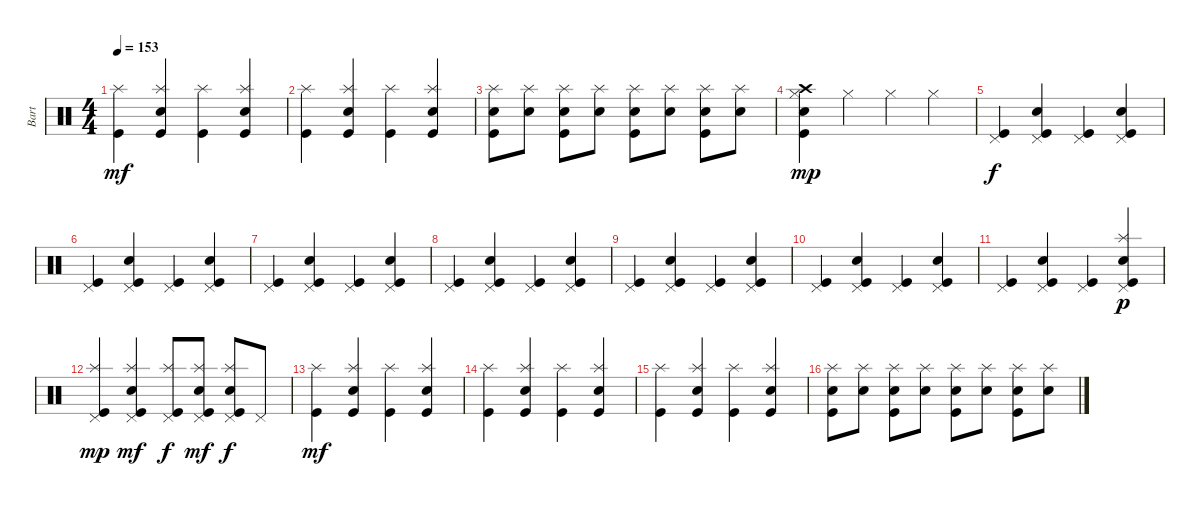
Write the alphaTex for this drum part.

\track ("Bart" "Bart") {instrument percussion}
\staff {score}
\articulation defaults
\ts (4 4)
\tempo 153
\clef neutral
\ks c
("Kick (hit)" "Splash (hit)").4{dy mf} ("Kick (hit)" "Electric Snare (hit)" "Splash (hit)").4 ("Kick (hit)" "Splash (hit)").4 ("Kick (hit)" "Electric Snare (hit)" "Splash (hit)").4 |
("Kick (hit)" "Splash (hit)").4 ("Kick (hit)" "Electric Snare (hit)" "Splash (hit)").4 ("Kick (hit)" "Splash (hit)").4 ("Kick (hit)" "Electric Snare (hit)" "Splash (hit)").4 |
("Kick (hit)" "Electric Snare (hit)" "Splash (hit)").8 ("Electric Snare (hit)" "Splash (hit)").8 ("Kick (hit)" "Electric Snare (hit)" "Splash (hit)").8 ("Electric Snare (hit)" "Splash (hit)").8 ("Kick (hit)" "Electric Snare (hit)" "Splash (hit)").8 ("Electric Snare (hit)" "Splash (hit)").8 ("Kick (hit)" "Electric Snare (hit)" "Splash (hit)").8 ("Electric Snare (hit)" "Splash (hit)").8 |
("Kick (hit)" "Electric Snare (hit)" "Crash high (hit)" "Hi-Hat (closed)").4{dy mp} "Hi-Hat (closed)".4 "Hi-Hat (closed)".4 "Hi-Hat (closed)".4 |
("Kick (hit)" "Pedal Hi-Hat (hit)").4{dy f} ("Kick (hit)" "Electric Snare (hit)" "Pedal Hi-Hat (hit)").4 ("Kick (hit)" "Pedal Hi-Hat (hit)").4 ("Kick (hit)" "Electric Snare (hit)" "Pedal Hi-Hat (hit)").4 |
("Kick (hit)" "Pedal Hi-Hat (hit)").4 ("Kick (hit)" "Electric Snare (hit)" "Pedal Hi-Hat (hit)").4 ("Kick (hit)" "Pedal Hi-Hat (hit)").4 ("Kick (hit)" "Electric Snare (hit)" "Pedal Hi-Hat (hit)").4 |
("Kick (hit)" "Pedal Hi-Hat (hit)").4 ("Kick (hit)" "Electric Snare (hit)" "Pedal Hi-Hat (hit)").4 ("Kick (hit)" "Pedal Hi-Hat (hit)").4 ("Kick (hit)" "Electric Snare (hit)" "Pedal Hi-Hat (hit)").4 |
("Kick (hit)" "Pedal Hi-Hat (hit)").4 ("Kick (hit)" "Electric Snare (hit)" "Pedal Hi-Hat (hit)").4 ("Kick (hit)" "Pedal Hi-Hat (hit)").4 ("Kick (hit)" "Electric Snare (hit)" "Pedal Hi-Hat (hit)").4 |
("Kick (hit)" "Pedal Hi-Hat (hit)").4 ("Kick (hit)" "Electric Snare (hit)" "Pedal Hi-Hat (hit)").4 ("Kick (hit)" "Pedal Hi-Hat (hit)").4 ("Kick (hit)" "Electric Snare (hit)" "Pedal Hi-Hat (hit)").4 |
("Kick (hit)" "Pedal Hi-Hat (hit)").4 ("Kick (hit)" "Electric Snare (hit)" "Pedal Hi-Hat (hit)").4 ("Kick (hit)" "Pedal Hi-Hat (hit)").4 ("Kick (hit)" "Electric Snare (hit)" "Pedal Hi-Hat (hit)").4 |
("Kick (hit)" "Pedal Hi-Hat (hit)").4 ("Kick (hit)" "Electric Snare (hit)" "Pedal Hi-Hat (hit)").4 ("Kick (hit)" "Pedal Hi-Hat (hit)").4 ("Kick (hit)" "Electric Snare (hit)" "Pedal Hi-Hat (hit)" "Splash (hit)").4{dy p} |
("Kick (hit)" "Pedal Hi-Hat (hit)" "Splash (hit)").4{dy mp} ("Kick (hit)" "Electric Snare (hit)" "Pedal Hi-Hat (hit)" "Splash (hit)").4{dy mf} ("Kick (hit)" "Pedal Hi-Hat (hit)" "Splash (hit)").8{dy f} ("Kick (hit)" "Electric Snare (hit)" "Pedal Hi-Hat (hit)" "Splash (hit)").8{dy mf} ("Kick (hit)" "Electric Snare (hit)" "Pedal Hi-Hat (hit)" "Splash (hit)").8{dy f} "Pedal Hi-Hat (hit)".8 |
("Kick (hit)" "Splash (hit)").4{dy mf} ("Kick (hit)" "Electric Snare (hit)" "Splash (hit)").4 ("Kick (hit)" "Splash (hit)").4 ("Kick (hit)" "Electric Snare (hit)" "Splash (hit)").4 |
("Kick (hit)" "Splash (hit)").4 ("Kick (hit)" "Electric Snare (hit)" "Splash (hit)").4 ("Kick (hit)" "Splash (hit)").4 ("Kick (hit)" "Electric Snare (hit)" "Splash (hit)").4 |
("Kick (hit)" "Splash (hit)").4 ("Kick (hit)" "Electric Snare (hit)" "Splash (hit)").4 ("Kick (hit)" "Splash (hit)").4 ("Kick (hit)" "Electric Snare (hit)" "Splash (hit)").4 |
("Kick (hit)" "Electric Snare (hit)" "Splash (hit)").8 ("Electric Snare (hit)" "Splash (hit)").8 ("Kick (hit)" "Electric Snare (hit)" "Splash (hit)").8 ("Electric Snare (hit)" "Splash (hit)").8 ("Kick (hit)" "Electric Snare (hit)" "Splash (hit)").8 ("Electric Snare (hit)" "Splash (hit)").8 ("Kick (hit)" "Electric Snare (hit)" "Splash (hit)").8 ("Electric Snare (hit)" "Splash (hit)").8
